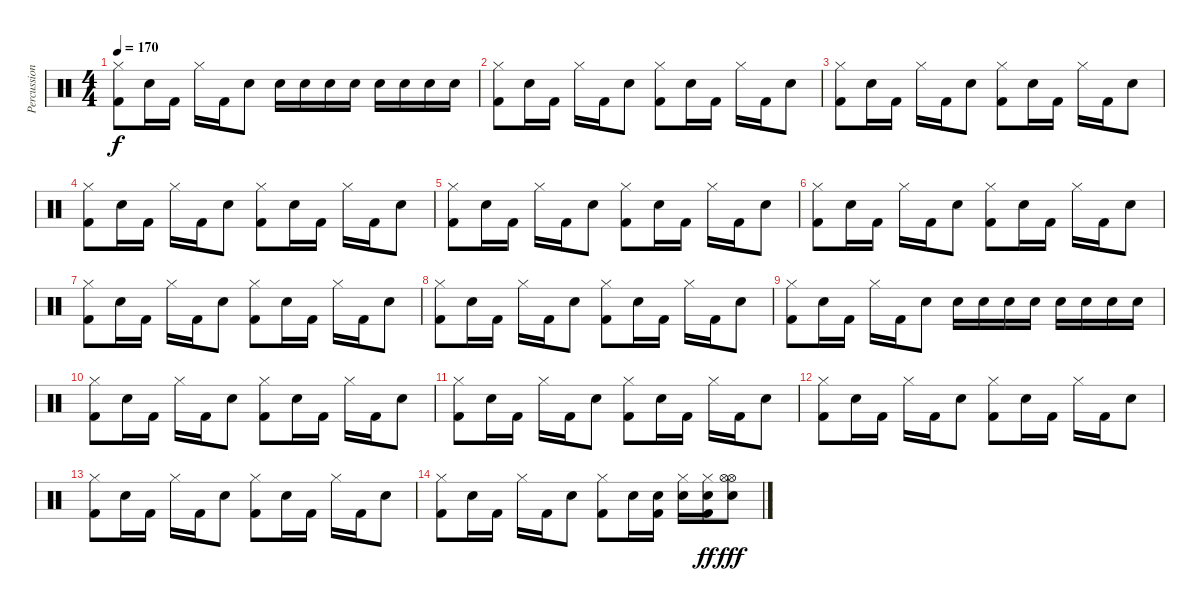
\track ("Percussions" "Percussion") {instrument percussion}
\staff {score}
\articulation defaults
\ts (4 4)
\tempo 170
\clef neutral
\ks c
("Hi-Hat (closed)" "Kick (hit) 2").8{dy f} "Snare (hit) 2".16 "Kick (hit) 2".16 "Hi-Hat (closed)".16 "Kick (hit) 2".16 "Snare (hit) 2".8 "Snare (hit) 2".16 "Snare (hit) 2".16 "Snare (hit) 2".16 "Snare (hit) 2".16 "Snare (hit) 2".16 "Snare (hit) 2".16 "Snare (hit) 2".16 "Snare (hit) 2".16 |
("Hi-Hat (closed)" "Kick (hit) 2").8 "Snare (hit) 2".16 "Kick (hit) 2".16 "Hi-Hat (closed)".16 "Kick (hit) 2".16 "Snare (hit) 2".8 ("Hi-Hat (closed)" "Kick (hit) 2").8 "Snare (hit) 2".16 "Kick (hit) 2".16 "Hi-Hat (closed)".16 "Kick (hit) 2".16 "Snare (hit) 2".8 |
("Hi-Hat (closed)" "Kick (hit) 2").8 "Snare (hit) 2".16 "Kick (hit) 2".16 "Hi-Hat (closed)".16 "Kick (hit) 2".16 "Snare (hit) 2".8 ("Hi-Hat (closed)" "Kick (hit) 2").8 "Snare (hit) 2".16 "Kick (hit) 2".16 "Hi-Hat (closed)".16 "Kick (hit) 2".16 "Snare (hit) 2".8 |
("Hi-Hat (closed)" "Kick (hit) 2").8 "Snare (hit) 2".16 "Kick (hit) 2".16 "Hi-Hat (closed)".16 "Kick (hit) 2".16 "Snare (hit) 2".8 ("Hi-Hat (closed)" "Kick (hit) 2").8 "Snare (hit) 2".16 "Kick (hit) 2".16 "Hi-Hat (closed)".16 "Kick (hit) 2".16 "Snare (hit) 2".8 |
("Hi-Hat (closed)" "Kick (hit) 2").8 "Snare (hit) 2".16 "Kick (hit) 2".16 "Hi-Hat (closed)".16 "Kick (hit) 2".16 "Snare (hit) 2".8 ("Hi-Hat (closed)" "Kick (hit) 2").8 "Snare (hit) 2".16 "Kick (hit) 2".16 "Hi-Hat (closed)".16 "Kick (hit) 2".16 "Snare (hit) 2".8 |
("Hi-Hat (closed)" "Kick (hit) 2").8 "Snare (hit) 2".16 "Kick (hit) 2".16 "Hi-Hat (closed)".16 "Kick (hit) 2".16 "Snare (hit) 2".8 ("Hi-Hat (closed)" "Kick (hit) 2").8 "Snare (hit) 2".16 "Kick (hit) 2".16 "Hi-Hat (closed)".16 "Kick (hit) 2".16 "Snare (hit) 2".8 |
("Hi-Hat (closed)" "Kick (hit) 2").8 "Snare (hit) 2".16 "Kick (hit) 2".16 "Hi-Hat (closed)".16 "Kick (hit) 2".16 "Snare (hit) 2".8 ("Hi-Hat (closed)" "Kick (hit) 2").8 "Snare (hit) 2".16 "Kick (hit) 2".16 "Hi-Hat (closed)".16 "Kick (hit) 2".16 "Snare (hit) 2".8 |
("Hi-Hat (closed)" "Kick (hit) 2").8 "Snare (hit) 2".16 "Kick (hit) 2".16 "Hi-Hat (closed)".16 "Kick (hit) 2".16 "Snare (hit) 2".8 ("Hi-Hat (closed)" "Kick (hit) 2").8 "Snare (hit) 2".16 "Kick (hit) 2".16 "Hi-Hat (closed)".16 "Kick (hit) 2".16 "Snare (hit) 2".8 |
("Hi-Hat (closed)" "Kick (hit) 2").8 "Snare (hit) 2".16 "Kick (hit) 2".16 "Hi-Hat (closed)".16 "Kick (hit) 2".16 "Snare (hit) 2".8 "Snare (hit) 2".16 "Snare (hit) 2".16 "Snare (hit) 2".16 "Snare (hit) 2".16 "Snare (hit) 2".16 "Snare (hit) 2".16 "Snare (hit) 2".16 "Snare (hit) 2".16 |
("Hi-Hat (closed)" "Kick (hit) 2").8 "Snare (hit) 2".16 "Kick (hit) 2".16 "Hi-Hat (closed)".16 "Kick (hit) 2".16 "Snare (hit) 2".8 ("Hi-Hat (closed)" "Kick (hit) 2").8 "Snare (hit) 2".16 "Kick (hit) 2".16 "Hi-Hat (closed)".16 "Kick (hit) 2".16 "Snare (hit) 2".8 |
("Hi-Hat (closed)" "Kick (hit) 2").8 "Snare (hit) 2".16 "Kick (hit) 2".16 "Hi-Hat (closed)".16 "Kick (hit) 2".16 "Snare (hit) 2".8 ("Hi-Hat (closed)" "Kick (hit) 2").8 "Snare (hit) 2".16 "Kick (hit) 2".16 "Hi-Hat (closed)".16 "Kick (hit) 2".16 "Snare (hit) 2".8 |
("Hi-Hat (closed)" "Kick (hit) 2").8 "Snare (hit) 2".16 "Kick (hit) 2".16 "Hi-Hat (closed)".16 "Kick (hit) 2".16 "Snare (hit) 2".8 ("Hi-Hat (closed)" "Kick (hit) 2").8 "Snare (hit) 2".16 "Kick (hit) 2".16 "Hi-Hat (closed)".16 "Kick (hit) 2".16 "Snare (hit) 2".8 |
("Hi-Hat (closed)" "Kick (hit) 2").8 "Snare (hit) 2".16 "Kick (hit) 2".16 "Hi-Hat (closed)".16 "Kick (hit) 2".16 "Snare (hit) 2".8 ("Hi-Hat (closed)" "Kick (hit) 2").8 "Snare (hit) 2".16 "Kick (hit) 2".16 "Hi-Hat (closed)".16 "Kick (hit) 2".16 "Snare (hit) 2".8 |
("Hi-Hat (closed)" "Kick (hit) 2").8 "Snare (hit) 2".16 "Kick (hit) 2".16 "Hi-Hat (closed)".16 "Kick (hit) 2".16 "Snare (hit) 2".8 ("Hi-Hat (closed)" "Kick (hit) 2").8 "Snare (hit) 2".16 ("Snare (hit) 2" "Kick (hit) 2").16 ("Hi-Hat (closed)" "Snare (hit) 2").16 ("Hi-Hat (closed)" "Snare (hit) 2" "Kick (hit) 2").16{dy ff} ("Hi-Hat (open)" "Hi-Hat (open)" "Snare (hit) 2").8{dy fff}
